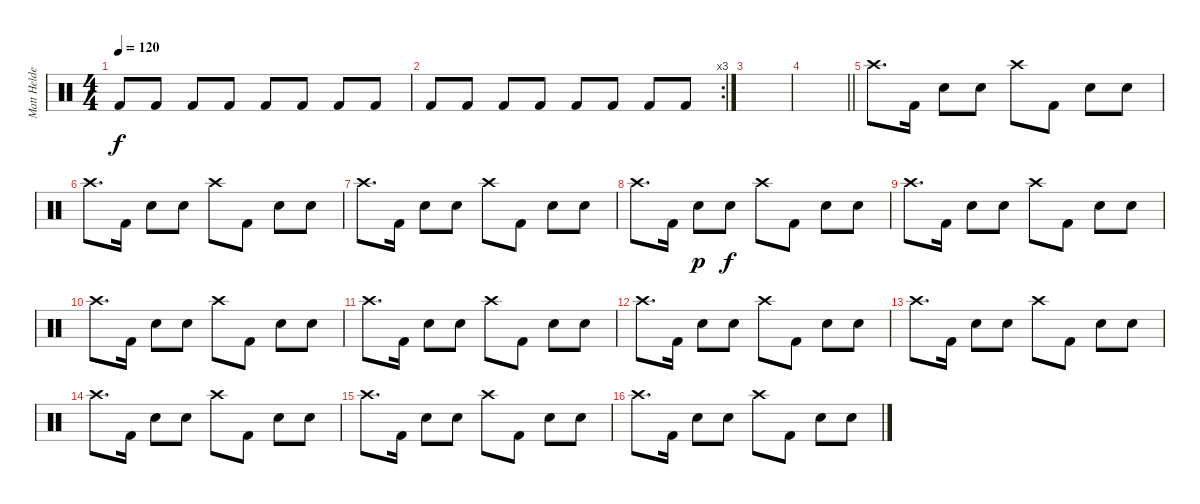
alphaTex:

\track ("Matt Helders" "Matt Helde") {instrument percussion}
\staff {score}
\articulation defaults
\ts (4 4)
\tempo 120
\clef neutral
\ks c "Kick (hit) 2".8{dy f} "Kick (hit) 2".8 "Kick (hit) 2".8 "Kick (hit) 2".8 "Kick (hit) 2".8 "Kick (hit) 2".8 "Kick (hit) 2".8 "Kick (hit) 2".8
|
\rc 3 "Kick (hit) 2".8 "Kick (hit) 2".8 "Kick (hit) 2".8 "Kick (hit) 2".8 "Kick (hit) 2".8 "Kick (hit) 2".8 "Kick (hit) 2".8 "Kick (hit) 2".8
|
|
\barLineRight lightlight
|
\section ("" "")
"Crash high (hit)".8{d} "Kick (hit) 2".16 "Snare (hit) 2".8 "Snare (hit) 2".8 "Crash high (hit)".8 "Kick (hit) 2".8 "Snare (hit) 2".8 "Snare (hit) 2".8 |
"Crash high (hit)".8{d} "Kick (hit) 2".16 "Snare (hit) 2".8 "Snare (hit) 2".8 "Crash high (hit)".8 "Kick (hit) 2".8 "Snare (hit) 2".8 "Snare (hit) 2".8 |
"Crash high (hit)".8{d} "Kick (hit) 2".16 "Snare (hit) 2".8 "Snare (hit) 2".8 "Crash high (hit)".8 "Kick (hit) 2".8 "Snare (hit) 2".8 "Snare (hit) 2".8 |
"Crash high (hit)".8{d} "Kick (hit) 2".16 "Snare (hit) 2".8{dy p} "Snare (hit) 2".8{dy f} "Crash high (hit)".8 "Kick (hit) 2".8 "Snare (hit) 2".8 "Snare (hit) 2".8 |
"Crash high (hit)".8{d} "Kick (hit) 2".16 "Snare (hit) 2".8 "Snare (hit) 2".8 "Crash high (hit)".8 "Kick (hit) 2".8 "Snare (hit) 2".8 "Snare (hit) 2".8 |
"Crash high (hit)".8{d} "Kick (hit) 2".16 "Snare (hit) 2".8 "Snare (hit) 2".8 "Crash high (hit)".8 "Kick (hit) 2".8 "Snare (hit) 2".8 "Snare (hit) 2".8 |
"Crash high (hit)".8{d} "Kick (hit) 2".16 "Snare (hit) 2".8 "Snare (hit) 2".8 "Crash high (hit)".8 "Kick (hit) 2".8 "Snare (hit) 2".8 "Snare (hit) 2".8 |
"Crash high (hit)".8{d} "Kick (hit) 2".16 "Snare (hit) 2".8 "Snare (hit) 2".8 "Crash high (hit)".8 "Kick (hit) 2".8 "Snare (hit) 2".8 "Snare (hit) 2".8 |
"Crash high (hit)".8{d} "Kick (hit) 2".16 "Snare (hit) 2".8 "Snare (hit) 2".8 "Crash high (hit)".8 "Kick (hit) 2".8 "Snare (hit) 2".8 "Snare (hit) 2".8 |
"Crash high (hit)".8{d} "Kick (hit) 2".16 "Snare (hit) 2".8 "Snare (hit) 2".8 "Crash high (hit)".8 "Kick (hit) 2".8 "Snare (hit) 2".8 "Snare (hit) 2".8 |
"Crash high (hit)".8{d} "Kick (hit) 2".16 "Snare (hit) 2".8 "Snare (hit) 2".8 "Crash high (hit)".8 "Kick (hit) 2".8 "Snare (hit) 2".8 "Snare (hit) 2".8 |
"Crash high (hit)".8{d} "Kick (hit) 2".16 "Snare (hit) 2".8 "Snare (hit) 2".8 "Crash high (hit)".8 "Kick (hit) 2".8 "Snare (hit) 2".8 "Snare (hit) 2".8
